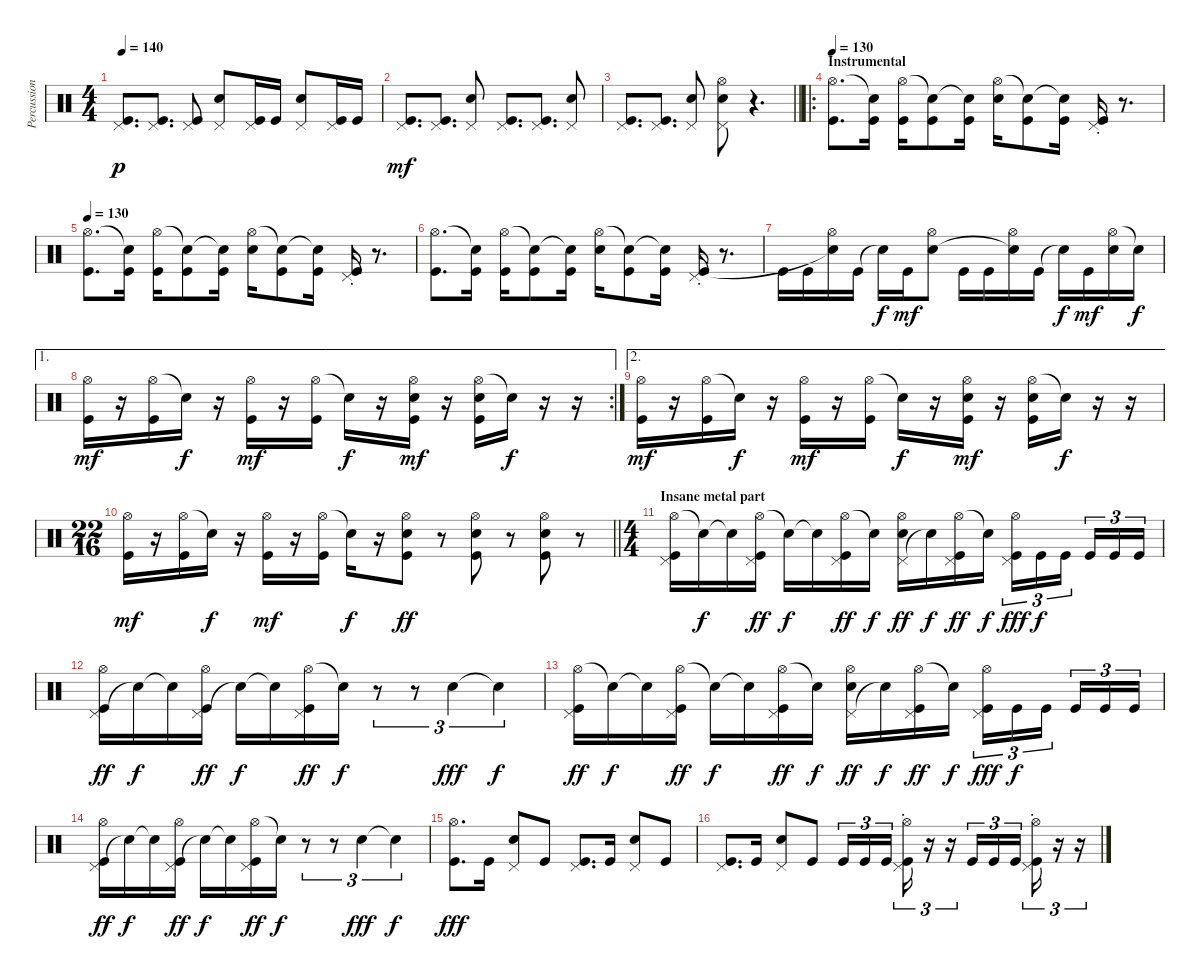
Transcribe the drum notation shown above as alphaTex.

\track ("Percussion" "Percussion") {instrument percussion}
\staff {score}
\articulation defaults
\ts (4 4)
\tempo 140
\clef neutral
\ks c
("Pedal Hi-Hat (hit)" "Kick (hit)").8{d dy p} ("Pedal Hi-Hat (hit)" "Kick (hit)").8{d} ("Pedal Hi-Hat (hit)" "Kick (hit)").8 ("Pedal Hi-Hat (hit)" "Electric Snare (hit)").8 ("Pedal Hi-Hat (hit)" "Kick (hit)").16 "Kick (hit)".16 ("Pedal Hi-Hat (hit)" "Electric Snare (hit)").8 ("Pedal Hi-Hat (hit)" "Kick (hit)").16 "Kick (hit)".16 |
("Pedal Hi-Hat (hit)" "Kick (hit)").8{d dy mf} ("Pedal Hi-Hat (hit)" "Kick (hit)").8{d} ("Pedal Hi-Hat (hit)" "Electric Snare (hit)").8 ("Pedal Hi-Hat (hit)" "Kick (hit)").8{d} ("Pedal Hi-Hat (hit)" "Kick (hit)").8{d} ("Pedal Hi-Hat (hit)" "Electric Snare (hit)").8 |
\barLineRight lightlight
("Pedal Hi-Hat (hit)" "Kick (hit)").8{d} ("Pedal Hi-Hat (hit)" "Kick (hit)").8{d} ("Pedal Hi-Hat (hit)" "Electric Snare (hit)").8 ("Pedal Hi-Hat (hit)" "Hi-Hat (open)" "Electric Snare (hit)").8 r.4{d} |
\ro
\section ("" "Instrumental")
\tempo 130
("Hi-Hat (open)" "Kick (hit)").8{d} ("Snare (hit)"{t} "Kick (hit)").16 ("Hi-Hat (open)" "Kick (hit)").16 ("Snare (hit)"{t} "Kick (hit)").8 ("Snare (hit)"{t} "Kick (hit)").16 ("Hi-Hat (open)" "Electric Snare (hit)").16 ("Snare (hit)"{t} "Kick (hit)").8 ("Snare (hit)"{t} "Kick (hit)").16 ("Pedal Hi-Hat (hit)"{st} "Kick (hit)").16 r.8{d} |
\tempo 130
("Hi-Hat (open)" "Kick (hit)").8{d} ("Snare (hit)"{t} "Kick (hit)").16 ("Hi-Hat (open)" "Kick (hit)").16 ("Snare (hit)"{t} "Kick (hit)").8 ("Snare (hit)"{t} "Kick (hit)").16 ("Hi-Hat (open)" "Electric Snare (hit)").16 ("Snare (hit)"{t} "Kick (hit)").8 ("Snare (hit)"{t} "Kick (hit)").16 ("Pedal Hi-Hat (hit)"{st} "Kick (hit)").16 r.8{d} |
("Hi-Hat (open)" "Kick (hit)").8{d} ("Snare (hit)"{t} "Kick (hit)").16 ("Hi-Hat (open)" "Kick (hit)").16 ("Snare (hit)"{t} "Kick (hit)").8 ("Snare (hit)"{t} "Kick (hit)").16 ("Hi-Hat (open)" "Electric Snare (hit)").16 ("Snare (hit)"{t} "Kick (hit)").8 ("Snare (hit)"{t} "Kick (hit)").16 ("Pedal Hi-Hat (hit)"{st} "Kick (hit)").16 r.8{d} |
"Kick (hit)".16 "Kick (hit)".16 ("Hi-Hat (open)" "Snare (hit)"{t}).16 "Kick (hit)".16 "Snare (hit)"{t}.16{dy f} "Kick (hit)".16{dy mf} ("Hi-Hat (open)" "Electric Snare (hit)").8 "Kick (hit)".16 "Kick (hit)".16 ("Hi-Hat (open)" "Snare (hit)"{t}).16 "Kick (hit)".16 "Snare (hit)"{t}.16{dy f} "Kick (hit)".16{dy mf} ("Hi-Hat (open)" "Electric Snare (hit)").16 "Snare (hit)"{t}.16{dy f} |
\ae 1
\rc 2
("Hi-Hat (open)" "Kick (hit)").16{dy mf} r.16 ("Hi-Hat (open)" "Kick (hit)").16 "Snare (hit)"{t}.16{dy f} r.16 ("Hi-Hat (open)" "Kick (hit)").16{dy mf} r.16 ("Hi-Hat (open)" "Kick (hit)").16 "Snare (hit)"{t}.16{dy f} r.16 ("Hi-Hat (open)" "Electric Snare (hit)" "Kick (hit)").16{dy mf} r.16 ("Hi-Hat (open)" "Electric Snare (hit)" "Kick (hit)").16 "Snare (hit)"{t}.16{dy f} r.16 r.16 |
\ae 2
("Hi-Hat (open)" "Kick (hit)").16{dy mf} r.16 ("Hi-Hat (open)" "Kick (hit)").16 "Snare (hit)"{t}.16{dy f} r.16 ("Hi-Hat (open)" "Kick (hit)").16{dy mf} r.16 ("Hi-Hat (open)" "Kick (hit)").16 "Snare (hit)"{t}.16{dy f} r.16 ("Hi-Hat (open)" "Electric Snare (hit)" "Kick (hit)").16{dy mf} r.16 ("Hi-Hat (open)" "Electric Snare (hit)" "Kick (hit)").16 "Snare (hit)"{t}.16{dy f} r.16 r.16 |
\ts (22 16)
\barLineRight lightlight
("Hi-Hat (open)" "Kick (hit)").16{dy mf} r.16 ("Hi-Hat (open)" "Kick (hit)").16 "Snare (hit)"{t}.16{dy f} r.16 ("Hi-Hat (open)" "Kick (hit)").16{dy mf} r.16 ("Hi-Hat (open)" "Kick (hit)").16 "Snare (hit)"{t}.16{dy f} r.16 ("Electric Snare (hit)" "Hi-Hat (open)" "Kick (hit)").8{dy ff} r.8 ("Electric Snare (hit)" "Hi-Hat (open)" "Kick (hit)").8 r.8 ("Electric Snare (hit)" "Hi-Hat (open)" "Kick (hit)").8 r.8 |
\ts (4 4)
\section ("" "Insane metal part")
("Hi-Hat (open)" "Pedal Hi-Hat (hit)" "Kick (hit)").16{volume 10} "Snare (hit)"{t}.16{dy f} "Snare (hit)"{t}.16 ("Hi-Hat (open)" "Pedal Hi-Hat (hit)" "Kick (hit)").16{dy ff} "Snare (hit)"{t}.16{dy f} "Snare (hit)"{t}.16 ("Hi-Hat (open)" "Pedal Hi-Hat (hit)" "Kick (hit)").16{dy ff} "Snare (hit)"{t}.16{dy f} ("Pedal Hi-Hat (hit)" "Hi-Hat (open)" "Electric Snare (hit)").16{dy ff} "Snare (hit)"{t}.16{dy f} ("Hi-Hat (open)" "Pedal Hi-Hat (hit)" "Kick (hit)").16{dy ff} "Snare (hit)"{t}.16{dy f} ("Hi-Hat (open)" "Pedal Hi-Hat (hit)" "Kick (hit)").16{tu (3 2) dy fff} "Kick (hit)".16{tu (3 2) dy f} "Kick (hit)".16{tu (3 2) beam splitsecondary} "Kick (hit)".16{tu (3 2)} "Kick (hit)".16{tu (3 2)} "Kick (hit)".16{tu (3 2)} |
("Pedal Hi-Hat (hit)" "Hi-Hat (open)" "Kick (hit)").16{dy ff} "Snare (hit)"{t}.16{dy f} "Snare (hit)"{t}.16 ("Pedal Hi-Hat (hit)" "Hi-Hat (open)" "Kick (hit)").16{dy ff} "Snare (hit)"{t}.16{dy f} "Snare (hit)"{t}.16 ("Hi-Hat (open)" "Pedal Hi-Hat (hit)" "Kick (hit)").16{dy ff} "Snare (hit)"{t}.16{dy f} r.8{tu (3 2)} r.8{tu (3 2)} "Electric Snare (hit)".4{tu (3 2) dy fff} "Snare (hit)"{t}.4{tu (3 2) dy f} |
("Hi-Hat (open)" "Pedal Hi-Hat (hit)" "Kick (hit)").16{dy ff} "Snare (hit)"{t}.16{dy f} "Snare (hit)"{t}.16 ("Hi-Hat (open)" "Pedal Hi-Hat (hit)" "Kick (hit)").16{dy ff} "Snare (hit)"{t}.16{dy f} "Snare (hit)"{t}.16 ("Hi-Hat (open)" "Pedal Hi-Hat (hit)" "Kick (hit)").16{dy ff} "Snare (hit)"{t}.16{dy f} ("Pedal Hi-Hat (hit)" "Hi-Hat (open)" "Electric Snare (hit)").16{dy ff} "Snare (hit)"{t}.16{dy f} ("Hi-Hat (open)" "Pedal Hi-Hat (hit)" "Kick (hit)").16{dy ff} "Snare (hit)"{t}.16{dy f} ("Hi-Hat (open)" "Pedal Hi-Hat (hit)" "Kick (hit)").16{tu (3 2) dy fff} "Kick (hit)".16{tu (3 2) dy f} "Kick (hit)".16{tu (3 2) beam splitsecondary} "Kick (hit)".16{tu (3 2)} "Kick (hit)".16{tu (3 2)} "Kick (hit)".16{tu (3 2)} |
("Pedal Hi-Hat (hit)" "Hi-Hat (open)" "Kick (hit)").16{dy ff} "Snare (hit)"{t}.16{dy f} "Snare (hit)"{t}.16 ("Pedal Hi-Hat (hit)" "Hi-Hat (open)" "Kick (hit)").16{dy ff} "Snare (hit)"{t}.16{dy f} "Snare (hit)"{t}.16 ("Hi-Hat (open)" "Pedal Hi-Hat (hit)" "Kick (hit)").16{dy ff} "Snare (hit)"{t}.16{dy f} r.8{tu (3 2)} r.8{tu (3 2)} "Electric Snare (hit)".4{tu (3 2) dy fff} "Snare (hit)"{t}.4{tu (3 2) dy f} |
("Hi-Hat (open)" "Kick (hit)").8{d dy fff} "Kick (hit)".16 ("Pedal Hi-Hat (hit)" "Electric Snare (hit)").8 "Kick (hit)".8 ("Pedal Hi-Hat (hit)" "Kick (hit)").8{d} "Kick (hit)".16 ("Pedal Hi-Hat (hit)" "Electric Snare (hit)").8 "Kick (hit)".8 |
("Pedal Hi-Hat (hit)" "Kick (hit)").8{d} "Kick (hit)".16 ("Pedal Hi-Hat (hit)" "Electric Snare (hit)").8 "Kick (hit)".8 "Kick (hit)".16{tu (3 2)} "Kick (hit)".16{tu (3 2)} "Kick (hit)".16{tu (3 2) beam splitsecondary} ("Pedal Hi-Hat (hit)" "Hi-Hat (open)"{st} "Kick (hit)").16{tu (3 2)} r.16{tu (3 2)} r.16{tu (3 2)} "Kick (hit)".16{tu (3 2)} "Kick (hit)".16{tu (3 2)} "Kick (hit)".16{tu (3 2) beam splitsecondary} ("Pedal Hi-Hat (hit)" "Hi-Hat (open)"{st} "Kick (hit)").16{tu (3 2)} r.16{tu (3 2)} r.16{tu (3 2)}
